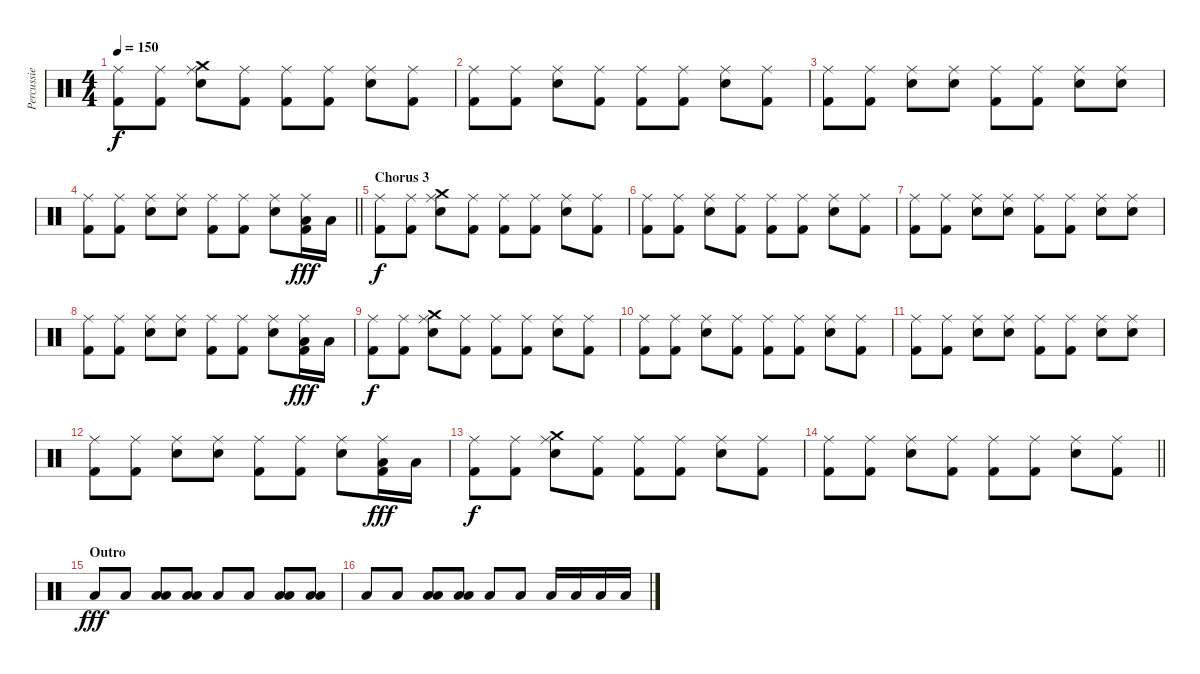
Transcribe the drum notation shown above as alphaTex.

\track ("Percussie" "Percussie") {instrument percussion}
\staff {score}
\articulation defaults
\ts (4 4)
\tempo 150
\clef neutral
\ks c
("Ride (middle)" "Kick (hit) 2").8{dy f} ("Ride (middle)" "Kick (hit) 2").8 ("Crash medium (hit)" "Ride (middle)" "Snare (hit) 2").8 ("Ride (middle)" "Kick (hit) 2").8 ("Ride (middle)" "Kick (hit) 2").8 ("Ride (middle)" "Kick (hit) 2").8 ("Ride (middle)" "Snare (hit) 2").8 ("Ride (middle)" "Kick (hit) 2").8 |
("Ride (middle)" "Kick (hit) 2").8 ("Ride (middle)" "Kick (hit) 2").8 ("Ride (middle)" "Snare (hit) 2").8 ("Ride (middle)" "Kick (hit) 2").8 ("Ride (middle)" "Kick (hit) 2").8 ("Ride (middle)" "Kick (hit) 2").8 ("Ride (middle)" "Snare (hit) 2").8 ("Ride (middle)" "Kick (hit) 2").8 |
("Ride (middle)" "Kick (hit) 2").8 ("Ride (middle)" "Kick (hit) 2").8 ("Ride (middle)" "Snare (hit) 2").8 ("Ride (middle)" "Snare (hit) 2").8 ("Ride (middle)" "Kick (hit) 2").8 ("Ride (middle)" "Kick (hit) 2").8 ("Ride (middle)" "Snare (hit) 2").8 ("Ride (middle)" "Snare (hit) 2").8 |
\barLineRight lightlight
("Ride (middle)" "Kick (hit) 2").8 ("Ride (middle)" "Kick (hit) 2").8 ("Ride (middle)" "Snare (hit) 2").8 ("Ride (middle)" "Snare (hit) 2").8 ("Ride (middle)" "Kick (hit) 2").8 ("Ride (middle)" "Kick (hit) 2").8 ("Ride (middle)" "Snare (hit) 2").8 ("Ride (middle)" "Low Floor Tom (hit)" "Kick (hit) 2").16{dy fff} "Low Floor Tom (hit)".16 |
\section ("" "Chorus 3")
("Ride (middle)" "Kick (hit) 2").8{dy f} ("Ride (middle)" "Kick (hit) 2").8 ("Crash medium (hit)" "Ride (middle)" "Snare (hit) 2").8 ("Ride (middle)" "Kick (hit) 2").8 ("Ride (middle)" "Kick (hit) 2").8 ("Ride (middle)" "Kick (hit) 2").8 ("Ride (middle)" "Snare (hit) 2").8 ("Ride (middle)" "Kick (hit) 2").8 |
("Ride (middle)" "Kick (hit) 2").8 ("Ride (middle)" "Kick (hit) 2").8 ("Ride (middle)" "Snare (hit) 2").8 ("Ride (middle)" "Kick (hit) 2").8 ("Ride (middle)" "Kick (hit) 2").8 ("Ride (middle)" "Kick (hit) 2").8 ("Ride (middle)" "Snare (hit) 2").8 ("Ride (middle)" "Kick (hit) 2").8 |
("Ride (middle)" "Kick (hit) 2").8 ("Ride (middle)" "Kick (hit) 2").8 ("Ride (middle)" "Snare (hit) 2").8 ("Ride (middle)" "Snare (hit) 2").8 ("Ride (middle)" "Kick (hit) 2").8 ("Ride (middle)" "Kick (hit) 2").8 ("Ride (middle)" "Snare (hit) 2").8 ("Ride (middle)" "Snare (hit) 2").8 |
("Ride (middle)" "Kick (hit) 2").8 ("Ride (middle)" "Kick (hit) 2").8 ("Ride (middle)" "Snare (hit) 2").8 ("Ride (middle)" "Snare (hit) 2").8 ("Ride (middle)" "Kick (hit) 2").8 ("Ride (middle)" "Kick (hit) 2").8 ("Ride (middle)" "Snare (hit) 2").8 ("Ride (middle)" "Low Floor Tom (hit)" "Kick (hit) 2").16{dy fff} "Low Floor Tom (hit)".16 |
("Ride (middle)" "Kick (hit) 2").8{dy f} ("Ride (middle)" "Kick (hit) 2").8 ("Crash medium (hit)" "Ride (middle)" "Snare (hit) 2").8 ("Ride (middle)" "Kick (hit) 2").8 ("Ride (middle)" "Kick (hit) 2").8 ("Ride (middle)" "Kick (hit) 2").8 ("Ride (middle)" "Snare (hit) 2").8 ("Ride (middle)" "Kick (hit) 2").8 |
("Ride (middle)" "Kick (hit) 2").8 ("Ride (middle)" "Kick (hit) 2").8 ("Ride (middle)" "Snare (hit) 2").8 ("Ride (middle)" "Kick (hit) 2").8 ("Ride (middle)" "Kick (hit) 2").8 ("Ride (middle)" "Kick (hit) 2").8 ("Ride (middle)" "Snare (hit) 2").8 ("Ride (middle)" "Kick (hit) 2").8 |
("Ride (middle)" "Kick (hit) 2").8 ("Ride (middle)" "Kick (hit) 2").8 ("Ride (middle)" "Snare (hit) 2").8 ("Ride (middle)" "Snare (hit) 2").8 ("Ride (middle)" "Kick (hit) 2").8 ("Ride (middle)" "Kick (hit) 2").8 ("Ride (middle)" "Snare (hit) 2").8 ("Ride (middle)" "Snare (hit) 2").8 |
("Ride (middle)" "Kick (hit) 2").8 ("Ride (middle)" "Kick (hit) 2").8 ("Ride (middle)" "Snare (hit) 2").8 ("Ride (middle)" "Snare (hit) 2").8 ("Ride (middle)" "Kick (hit) 2").8 ("Ride (middle)" "Kick (hit) 2").8 ("Ride (middle)" "Snare (hit) 2").8 ("Ride (middle)" "Low Floor Tom (hit)" "Kick (hit) 2").16{dy fff} "Low Floor Tom (hit)".16 |
("Ride (middle)" "Kick (hit) 2").8{dy f} ("Ride (middle)" "Kick (hit) 2").8 ("Crash medium (hit)" "Ride (middle)" "Snare (hit) 2").8 ("Ride (middle)" "Kick (hit) 2").8 ("Ride (middle)" "Kick (hit) 2").8 ("Ride (middle)" "Kick (hit) 2").8 ("Ride (middle)" "Snare (hit) 2").8 ("Ride (middle)" "Kick (hit) 2").8 |
\barLineRight lightlight
("Ride (middle)" "Kick (hit) 2").8 ("Ride (middle)" "Kick (hit) 2").8 ("Ride (middle)" "Snare (hit) 2").8 ("Ride (middle)" "Kick (hit) 2").8 ("Ride (middle)" "Kick (hit) 2").8 ("Ride (middle)" "Kick (hit) 2").8 ("Ride (middle)" "Snare (hit) 2").8 ("Ride (middle)" "Kick (hit) 2").8 |
\section ("" "Outro")
"Low Floor Tom (hit)".8{dy fff} "Low Floor Tom (hit)".8 ("Low Tom (hit)" "Low Floor Tom (hit)").8 ("Low Tom (hit)" "Low Floor Tom (hit)").8 "Low Floor Tom (hit)".8 "Low Floor Tom (hit)".8 ("Low Tom (hit)" "Low Floor Tom (hit)").8 ("Low Tom (hit)" "Low Floor Tom (hit)").8 |
"Low Floor Tom (hit)".8 "Low Floor Tom (hit)".8 ("Low Tom (hit)" "Low Floor Tom (hit)").8 ("Low Tom (hit)" "Low Floor Tom (hit)").8 "Low Floor Tom (hit)".8 "Low Floor Tom (hit)".8 "Low Floor Tom (hit)".16 "Low Floor Tom (hit)".16 "Low Floor Tom (hit)".16 "Low Floor Tom (hit)".16
